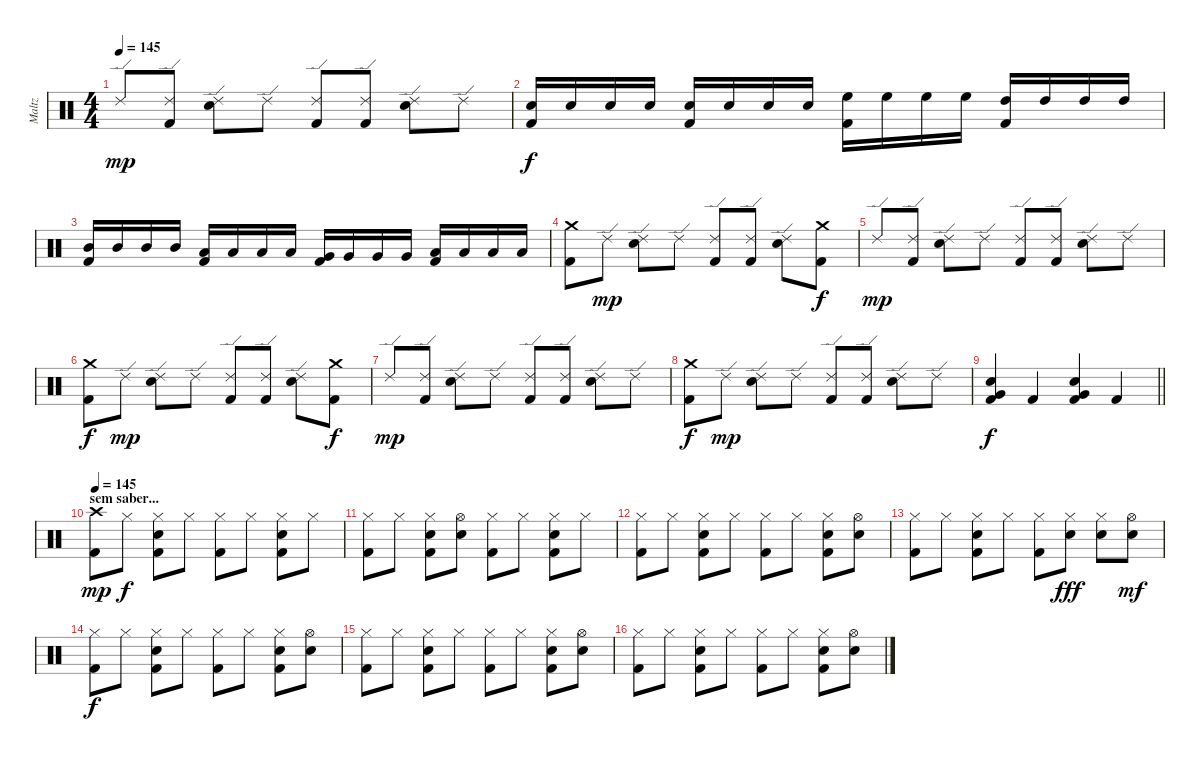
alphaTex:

\track ("Maltz" "Maltz") {instrument percussion}
\staff {score}
\articulation defaults
\ts (4 4)
\tempo 145
\clef neutral
\ks c "Ride (edge) 2".8{dy mp}
("Ride (edge) 2" "Kick (hit) 2").8 ("Ride (edge) 2" "Electric Snare (hit)").8 "Ride (edge) 2".8 ("Ride (edge) 2" "Kick (hit) 2").8 ("Ride (edge) 2" "Kick (hit) 2").8 ("Ride (edge) 2" "Electric Snare (hit)").8 "Ride (edge) 2".8 |
("Electric Snare (hit)" "Kick (hit) 2").16{dy f} "Electric Snare (hit)".16 "Electric Snare (hit)".16 "Electric Snare (hit)".16 ("Electric Snare (hit)" "Kick (hit) 2").16 "Electric Snare (hit)".16 "Electric Snare (hit)".16 "Electric Snare (hit)".16 ("High Floor Tom (hit)" "Kick (hit) 2").16 "High Floor Tom (hit)".16 "High Floor Tom (hit)".16 "High Floor Tom (hit)".16 ("High Tom (hit)" "Kick (hit) 2").16 "High Tom (hit)".16 "High Tom (hit)".16 "High Tom (hit)".16 |
("Mid Tom (hit)" "Kick (hit) 2").16 "Mid Tom (hit)".16 "Mid Tom (hit)".16 "Mid Tom (hit)".16 ("Low Tom (hit)" "Kick (hit) 2").16 "Low Tom (hit)".16 "Low Tom (hit)".16 "Low Tom (hit)".16 ("Very Low Tom (hit)" "Kick (hit) 2").16 "Very Low Tom (hit)".16 "Very Low Tom (hit)".16 "Very Low Tom (hit)".16 ("Low Floor Tom (hit)" "Kick (hit) 2").16 "Low Floor Tom (hit)".16 "Low Floor Tom (hit)".16 "Low Floor Tom (hit)".16 |
("Crash medium (hit)" "Kick (hit) 2").8 "Ride (edge) 2".8{dy mp} ("Ride (edge) 2" "Electric Snare (hit)").8 "Ride (edge) 2".8 ("Ride (edge) 2" "Kick (hit) 2").8 ("Ride (edge) 2" "Kick (hit) 2").8 ("Ride (edge) 2" "Electric Snare (hit)").8 ("Crash medium (hit)" "Kick (hit) 2").8{dy f} |
"Ride (edge) 2".8{dy mp} ("Ride (edge) 2" "Kick (hit) 2").8 ("Ride (edge) 2" "Electric Snare (hit)").8 "Ride (edge) 2".8 ("Ride (edge) 2" "Kick (hit) 2").8 ("Ride (edge) 2" "Kick (hit) 2").8 ("Ride (edge) 2" "Electric Snare (hit)").8 "Ride (edge) 2".8 |
("Crash medium (hit)" "Kick (hit) 2").8{dy f} "Ride (edge) 2".8{dy mp} ("Ride (edge) 2" "Electric Snare (hit)").8 "Ride (edge) 2".8 ("Ride (edge) 2" "Kick (hit) 2").8 ("Ride (edge) 2" "Kick (hit) 2").8 ("Ride (edge) 2" "Electric Snare (hit)").8 ("Crash medium (hit)" "Kick (hit) 2").8{dy f} |
"Ride (edge) 2".8{dy mp} ("Ride (edge) 2" "Kick (hit) 2").8 ("Ride (edge) 2" "Electric Snare (hit)").8 "Ride (edge) 2".8 ("Ride (edge) 2" "Kick (hit) 2").8 ("Ride (edge) 2" "Kick (hit) 2").8 ("Ride (edge) 2" "Electric Snare (hit)").8 "Ride (edge) 2".8 |
("Crash medium (hit)" "Kick (hit) 2").8{dy f} "Ride (edge) 2".8{dy mp} ("Ride (edge) 2" "Electric Snare (hit)").8 "Ride (edge) 2".8 ("Ride (edge) 2" "Kick (hit) 2").8 ("Ride (edge) 2" "Kick (hit) 2").8 ("Ride (edge) 2" "Electric Snare (hit)").8 "Ride (edge) 2".8 |
\barLineRight lightlight
("Very Low Tom (hit)" "Electric Snare (hit)" "Kick (hit) 2").4{dy f} "Kick (hit) 2".4 ("Very Low Tom (hit)" "Electric Snare (hit)" "Kick (hit) 2").4 "Kick (hit) 2".4 |
\section ("" "sem saber...")
\tempo 145
("Crash high (hit)" "Kick (hit) 2").8{dy mp} "Hi-Hat (closed)".8{dy f} ("Hi-Hat (closed)" "Electric Snare (hit)" "Kick (hit) 2").8 "Hi-Hat (closed)".8 ("Hi-Hat (closed)" "Kick (hit) 2").8 "Hi-Hat (closed)".8 ("Hi-Hat (closed)" "Electric Snare (hit)" "Kick (hit) 2").8 "Hi-Hat (closed)".8 |
("Hi-Hat (closed)" "Kick (hit) 2").8 "Hi-Hat (closed)".8 ("Hi-Hat (closed)" "Electric Snare (hit)" "Kick (hit) 2").8 ("Hi-Hat (open)" "Electric Snare (hit)").8 ("Hi-Hat (closed)" "Kick (hit) 2").8 "Hi-Hat (closed)".8 ("Hi-Hat (closed)" "Electric Snare (hit)" "Kick (hit) 2").8 "Hi-Hat (closed)".8 |
("Hi-Hat (closed)" "Kick (hit) 2").8 "Hi-Hat (closed)".8 ("Hi-Hat (closed)" "Electric Snare (hit)" "Kick (hit) 2").8 "Hi-Hat (closed)".8 ("Hi-Hat (closed)" "Kick (hit) 2").8 "Hi-Hat (closed)".8 ("Hi-Hat (closed)" "Electric Snare (hit)" "Kick (hit) 2").8 ("Hi-Hat (open)" "Electric Snare (hit)").8 |
("Hi-Hat (closed)" "Kick (hit) 2").8 "Hi-Hat (closed)".8 ("Hi-Hat (closed)" "Electric Snare (hit)" "Kick (hit) 2").8 "Hi-Hat (closed)".8 ("Hi-Hat (closed)" "Kick (hit) 2").8 ("Hi-Hat (closed)" "Electric Snare (hit)").8{dy fff} ("Hi-Hat (closed)" "Electric Snare (hit)").8 ("Hi-Hat (open)" "Electric Snare (hit)").8{dy mf} |
("Hi-Hat (closed)" "Kick (hit) 2").8{dy f} "Hi-Hat (closed)".8 ("Hi-Hat (closed)" "Electric Snare (hit)" "Kick (hit) 2").8 "Hi-Hat (closed)".8 ("Hi-Hat (closed)" "Kick (hit) 2").8 "Hi-Hat (closed)".8 ("Hi-Hat (closed)" "Electric Snare (hit)" "Kick (hit) 2").8 ("Hi-Hat (open)" "Electric Snare (hit)").8 |
("Hi-Hat (closed)" "Kick (hit) 2").8 "Hi-Hat (closed)".8 ("Hi-Hat (closed)" "Electric Snare (hit)" "Kick (hit) 2").8 "Hi-Hat (closed)".8 ("Hi-Hat (closed)" "Kick (hit) 2").8 "Hi-Hat (closed)".8 ("Hi-Hat (closed)" "Electric Snare (hit)" "Kick (hit) 2").8 ("Hi-Hat (open)" "Electric Snare (hit)").8 |
("Hi-Hat (closed)" "Kick (hit) 2").8 "Hi-Hat (closed)".8 ("Hi-Hat (closed)" "Electric Snare (hit)" "Kick (hit) 2").8 "Hi-Hat (closed)".8 ("Hi-Hat (closed)" "Kick (hit) 2").8 "Hi-Hat (closed)".8 ("Hi-Hat (closed)" "Electric Snare (hit)" "Kick (hit) 2").8 ("Hi-Hat (open)" "Electric Snare (hit)").8
